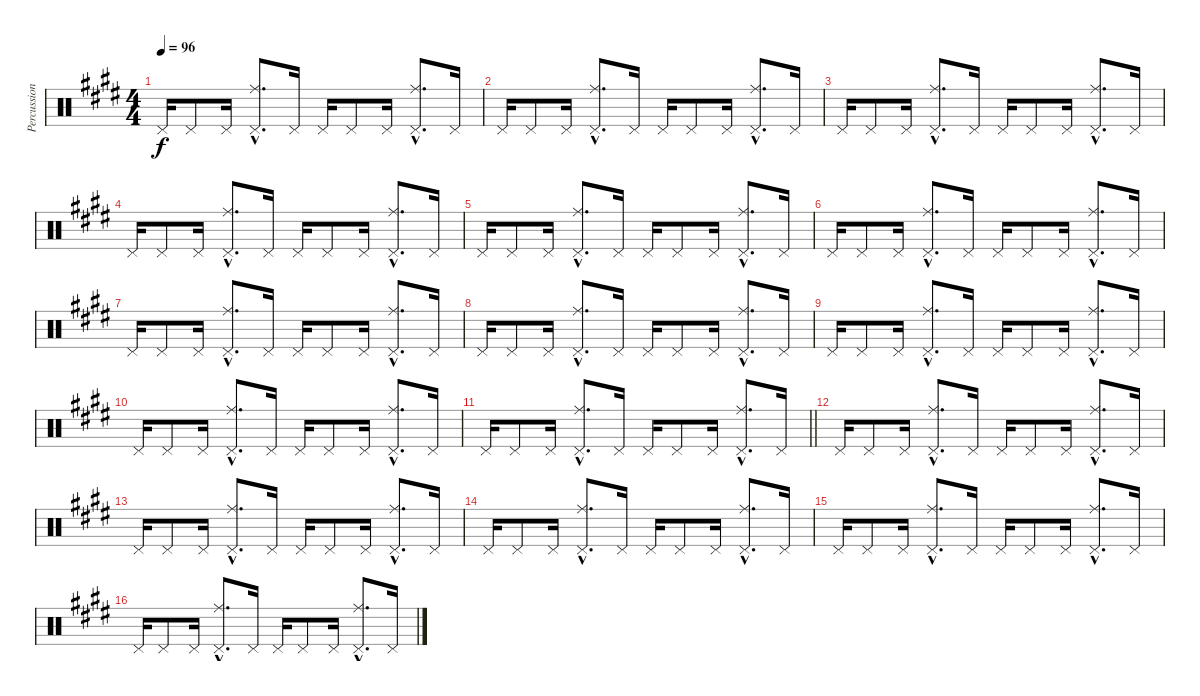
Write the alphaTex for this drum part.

\track ("Percussions" "Percussion") {instrument percussion}
\staff {score}
\articulation defaults
\ts (4 4)
\tempo 96
\clef neutral
\ks e "Pedal Hi-Hat (hit)".16{dy f} "Pedal Hi-Hat (hit)".8 "Pedal Hi-Hat (hit)".16
("Pedal Hi-Hat (hit)"{hac} "Ride (middle)"{hac}).8{d} "Pedal Hi-Hat (hit)".16 "Pedal Hi-Hat (hit)".16 "Pedal Hi-Hat (hit)".8 "Pedal Hi-Hat (hit)".16 ("Pedal Hi-Hat (hit)"{hac} "Ride (middle)"{hac}).8{d} "Pedal Hi-Hat (hit)".16 |
"Pedal Hi-Hat (hit)".16 "Pedal Hi-Hat (hit)".8 "Pedal Hi-Hat (hit)".16 ("Pedal Hi-Hat (hit)"{hac} "Ride (middle)"{hac}).8{d} "Pedal Hi-Hat (hit)".16 "Pedal Hi-Hat (hit)".16 "Pedal Hi-Hat (hit)".8 "Pedal Hi-Hat (hit)".16 ("Pedal Hi-Hat (hit)"{hac} "Ride (middle)"{hac}).8{d} "Pedal Hi-Hat (hit)".16 |
"Pedal Hi-Hat (hit)".16 "Pedal Hi-Hat (hit)".8 "Pedal Hi-Hat (hit)".16 ("Pedal Hi-Hat (hit)"{hac} "Ride (middle)"{hac}).8{d} "Pedal Hi-Hat (hit)".16 "Pedal Hi-Hat (hit)".16 "Pedal Hi-Hat (hit)".8 "Pedal Hi-Hat (hit)".16 ("Pedal Hi-Hat (hit)"{hac} "Ride (middle)"{hac}).8{d} "Pedal Hi-Hat (hit)".16 |
"Pedal Hi-Hat (hit)".16 "Pedal Hi-Hat (hit)".8 "Pedal Hi-Hat (hit)".16 ("Pedal Hi-Hat (hit)"{hac} "Ride (middle)"{hac}).8{d} "Pedal Hi-Hat (hit)".16 "Pedal Hi-Hat (hit)".16 "Pedal Hi-Hat (hit)".8 "Pedal Hi-Hat (hit)".16 ("Pedal Hi-Hat (hit)"{hac} "Ride (middle)"{hac}).8{d} "Pedal Hi-Hat (hit)".16 |
"Pedal Hi-Hat (hit)".16 "Pedal Hi-Hat (hit)".8 "Pedal Hi-Hat (hit)".16 ("Pedal Hi-Hat (hit)"{hac} "Ride (middle)"{hac}).8{d} "Pedal Hi-Hat (hit)".16 "Pedal Hi-Hat (hit)".16 "Pedal Hi-Hat (hit)".8 "Pedal Hi-Hat (hit)".16 ("Pedal Hi-Hat (hit)"{hac} "Ride (middle)"{hac}).8{d} "Pedal Hi-Hat (hit)".16 |
"Pedal Hi-Hat (hit)".16 "Pedal Hi-Hat (hit)".8 "Pedal Hi-Hat (hit)".16 ("Pedal Hi-Hat (hit)"{hac} "Ride (middle)"{hac}).8{d} "Pedal Hi-Hat (hit)".16 "Pedal Hi-Hat (hit)".16 "Pedal Hi-Hat (hit)".8 "Pedal Hi-Hat (hit)".16 ("Pedal Hi-Hat (hit)"{hac} "Ride (middle)"{hac}).8{d} "Pedal Hi-Hat (hit)".16 |
"Pedal Hi-Hat (hit)".16 "Pedal Hi-Hat (hit)".8 "Pedal Hi-Hat (hit)".16 ("Pedal Hi-Hat (hit)"{hac} "Ride (middle)"{hac}).8{d} "Pedal Hi-Hat (hit)".16 "Pedal Hi-Hat (hit)".16 "Pedal Hi-Hat (hit)".8 "Pedal Hi-Hat (hit)".16 ("Pedal Hi-Hat (hit)"{hac} "Ride (middle)"{hac}).8{d} "Pedal Hi-Hat (hit)".16 |
"Pedal Hi-Hat (hit)".16 "Pedal Hi-Hat (hit)".8 "Pedal Hi-Hat (hit)".16 ("Pedal Hi-Hat (hit)"{hac} "Ride (middle)"{hac}).8{d} "Pedal Hi-Hat (hit)".16 "Pedal Hi-Hat (hit)".16 "Pedal Hi-Hat (hit)".8 "Pedal Hi-Hat (hit)".16 ("Pedal Hi-Hat (hit)"{hac} "Ride (middle)"{hac}).8{d} "Pedal Hi-Hat (hit)".16 |
"Pedal Hi-Hat (hit)".16 "Pedal Hi-Hat (hit)".8 "Pedal Hi-Hat (hit)".16 ("Pedal Hi-Hat (hit)"{hac} "Ride (middle)"{hac}).8{d} "Pedal Hi-Hat (hit)".16 "Pedal Hi-Hat (hit)".16 "Pedal Hi-Hat (hit)".8 "Pedal Hi-Hat (hit)".16 ("Pedal Hi-Hat (hit)"{hac} "Ride (middle)"{hac}).8{d} "Pedal Hi-Hat (hit)".16 |
"Pedal Hi-Hat (hit)".16 "Pedal Hi-Hat (hit)".8 "Pedal Hi-Hat (hit)".16 ("Pedal Hi-Hat (hit)"{hac} "Ride (middle)"{hac}).8{d} "Pedal Hi-Hat (hit)".16 "Pedal Hi-Hat (hit)".16 "Pedal Hi-Hat (hit)".8 "Pedal Hi-Hat (hit)".16 ("Pedal Hi-Hat (hit)"{hac} "Ride (middle)"{hac}).8{d} "Pedal Hi-Hat (hit)".16 |
\barLineRight lightlight "Pedal Hi-Hat (hit)".16 "Pedal Hi-Hat (hit)".8 "Pedal Hi-Hat (hit)".16
("Pedal Hi-Hat (hit)"{hac} "Ride (middle)"{hac}).8{d} "Pedal Hi-Hat (hit)".16 "Pedal Hi-Hat (hit)".16 "Pedal Hi-Hat (hit)".8 "Pedal Hi-Hat (hit)".16 ("Pedal Hi-Hat (hit)"{hac} "Ride (middle)"{hac}).8{d} "Pedal Hi-Hat (hit)".16 |
"Pedal Hi-Hat (hit)".16 "Pedal Hi-Hat (hit)".8 "Pedal Hi-Hat (hit)".16 ("Pedal Hi-Hat (hit)"{hac} "Ride (middle)"{hac}).8{d} "Pedal Hi-Hat (hit)".16 "Pedal Hi-Hat (hit)".16 "Pedal Hi-Hat (hit)".8 "Pedal Hi-Hat (hit)".16 ("Pedal Hi-Hat (hit)"{hac} "Ride (middle)"{hac}).8{d} "Pedal Hi-Hat (hit)".16 |
"Pedal Hi-Hat (hit)".16 "Pedal Hi-Hat (hit)".8 "Pedal Hi-Hat (hit)".16 ("Pedal Hi-Hat (hit)"{hac} "Ride (middle)"{hac}).8{d} "Pedal Hi-Hat (hit)".16 "Pedal Hi-Hat (hit)".16 "Pedal Hi-Hat (hit)".8 "Pedal Hi-Hat (hit)".16 ("Pedal Hi-Hat (hit)"{hac} "Ride (middle)"{hac}).8{d} "Pedal Hi-Hat (hit)".16 |
"Pedal Hi-Hat (hit)".16 "Pedal Hi-Hat (hit)".8 "Pedal Hi-Hat (hit)".16 ("Pedal Hi-Hat (hit)"{hac} "Ride (middle)"{hac}).8{d} "Pedal Hi-Hat (hit)".16 "Pedal Hi-Hat (hit)".16 "Pedal Hi-Hat (hit)".8 "Pedal Hi-Hat (hit)".16 ("Pedal Hi-Hat (hit)"{hac} "Ride (middle)"{hac}).8{d} "Pedal Hi-Hat (hit)".16 |
"Pedal Hi-Hat (hit)".16 "Pedal Hi-Hat (hit)".8 "Pedal Hi-Hat (hit)".16 ("Pedal Hi-Hat (hit)"{hac} "Ride (middle)"{hac}).8{d} "Pedal Hi-Hat (hit)".16 "Pedal Hi-Hat (hit)".16 "Pedal Hi-Hat (hit)".8 "Pedal Hi-Hat (hit)".16 ("Pedal Hi-Hat (hit)"{hac} "Ride (middle)"{hac}).8{d} "Pedal Hi-Hat (hit)".16 |
"Pedal Hi-Hat (hit)".16 "Pedal Hi-Hat (hit)".8 "Pedal Hi-Hat (hit)".16 ("Pedal Hi-Hat (hit)"{hac} "Ride (middle)"{hac}).8{d} "Pedal Hi-Hat (hit)".16 "Pedal Hi-Hat (hit)".16 "Pedal Hi-Hat (hit)".8 "Pedal Hi-Hat (hit)".16 ("Pedal Hi-Hat (hit)"{hac} "Ride (middle)"{hac}).8{d} "Pedal Hi-Hat (hit)".16
